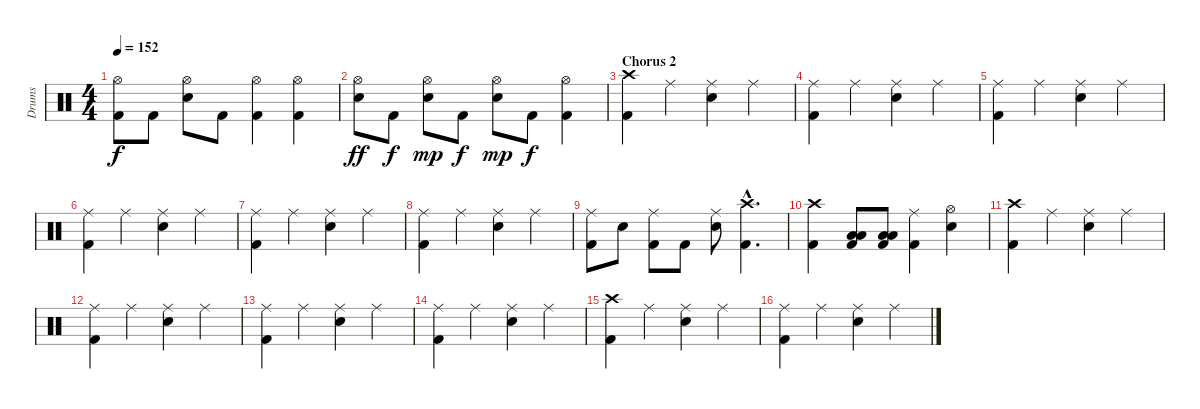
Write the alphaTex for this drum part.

\track ("Drums" "Drums") {instrument percussion}
\staff {score}
\articulation defaults
\ts (4 4)
\tempo 152
\clef neutral
\ks c
("Hi-Hat (open)" "Kick (hit) 2").8{dy f} "Kick (hit) 2".8 ("Hi-Hat (open)" "Electric Snare (hit)").8 "Kick (hit) 2".8 ("Hi-Hat (open)" "Kick (hit) 2").4 ("Hi-Hat (open)" "Kick (hit) 2").4 |
("Hi-Hat (open)" "Electric Snare (hit)").8{dy ff} "Kick (hit) 2".8{dy f} ("Hi-Hat (open)" "Electric Snare (hit)").8{dy mp} "Kick (hit) 2".8{dy f} ("Hi-Hat (open)" "Electric Snare (hit)").8{dy mp} "Kick (hit) 2".8{dy f} ("Hi-Hat (open)" "Kick (hit) 2").4 |
\section ("" "Chorus 2")
("Crash high (hit)" "Kick (hit) 2").4 "Ride (middle)".4 ("Ride (middle)" "Electric Snare (hit)").4 "Ride (middle)".4 |
("Ride (middle)" "Kick (hit) 2").4 "Ride (middle)".4 ("Ride (middle)" "Electric Snare (hit)").4 "Ride (middle)".4 |
("Ride (middle)" "Kick (hit) 2").4 "Ride (middle)".4 ("Ride (middle)" "Electric Snare (hit)").4 "Ride (middle)".4 |
("Ride (middle)" "Kick (hit) 2").4 "Ride (middle)".4 ("Ride (middle)" "Electric Snare (hit)").4 "Ride (middle)".4 |
("Ride (middle)" "Kick (hit) 2").4 "Ride (middle)".4 ("Ride (middle)" "Electric Snare (hit)").4 "Ride (middle)".4 |
("Ride (middle)" "Kick (hit) 2").4 "Ride (middle)".4 ("Ride (middle)" "Electric Snare (hit)").4 "Ride (middle)".4 |
("Ride (middle)" "Kick (hit) 2").8 "Electric Snare (hit)".8 ("Ride (middle)" "Kick (hit) 2").8 "Kick (hit) 2".8 ("Ride (middle)" "Electric Snare (hit)").8 ("Crash high (hit)"{hac} "Kick (hit) 2"{hac}).4{d} |
("Crash high (hit)" "Kick (hit) 2").4 ("Low Floor Tom (hit)" "Low Tom (hit)" "Kick (hit) 2").8 ("Low Floor Tom (hit)" "Low Tom (hit)" "Kick (hit) 2").8 ("Ride (middle)" "Kick (hit) 2").4 ("Hi-Hat (open)" "Electric Snare (hit)").4 |
("Crash high (hit)" "Kick (hit) 2").4 "Ride (middle)".4 ("Ride (middle)" "Electric Snare (hit)").4 "Ride (middle)".4 |
("Ride (middle)" "Kick (hit) 2").4 "Ride (middle)".4 ("Ride (middle)" "Electric Snare (hit)").4 "Ride (middle)".4 |
("Ride (middle)" "Kick (hit) 2").4 "Ride (middle)".4 ("Ride (middle)" "Electric Snare (hit)").4 "Ride (middle)".4 |
("Ride (middle)" "Kick (hit) 2").4 "Ride (middle)".4 ("Ride (middle)" "Electric Snare (hit)").4 "Ride (middle)".4 |
("Crash high (hit)" "Kick (hit) 2").4 "Ride (middle)".4 ("Ride (middle)" "Electric Snare (hit)").4 "Ride (middle)".4 |
("Ride (middle)" "Kick (hit) 2").4 "Ride (middle)".4 ("Ride (middle)" "Electric Snare (hit)").4 "Ride (middle)".4
